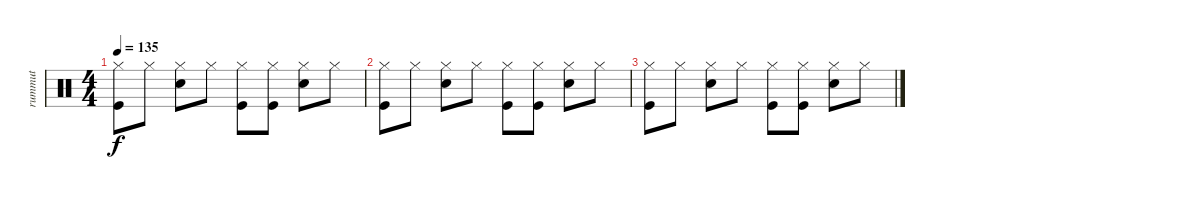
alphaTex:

\track ("rummut" "rummut") {instrument percussion}
\staff {score}
\articulation defaults
\ts (4 4)
\tempo 135
\clef neutral
\ks c
("Hi-Hat (closed)" "Kick (hit)").8{dy f} "Hi-Hat (closed)".8 ("Hi-Hat (closed)" "Snare (hit) 2").8 "Hi-Hat (closed)".8 ("Hi-Hat (closed)" "Kick (hit)").8 ("Hi-Hat (closed)" "Kick (hit)").8 ("Hi-Hat (closed)" "Snare (hit) 2").8 "Hi-Hat (closed)".8 |
("Hi-Hat (closed)" "Kick (hit)").8 "Hi-Hat (closed)".8 ("Hi-Hat (closed)" "Snare (hit) 2").8 "Hi-Hat (closed)".8 ("Hi-Hat (closed)" "Kick (hit)").8 ("Hi-Hat (closed)" "Kick (hit)").8 ("Hi-Hat (closed)" "Snare (hit) 2").8 "Hi-Hat (closed)".8 |
("Hi-Hat (closed)" "Kick (hit)").8 "Hi-Hat (closed)".8 ("Hi-Hat (closed)" "Snare (hit) 2").8 "Hi-Hat (closed)".8 ("Hi-Hat (closed)" "Kick (hit)").8 ("Hi-Hat (closed)" "Kick (hit)").8 ("Hi-Hat (closed)" "Snare (hit) 2").8 "Hi-Hat (closed)".8
